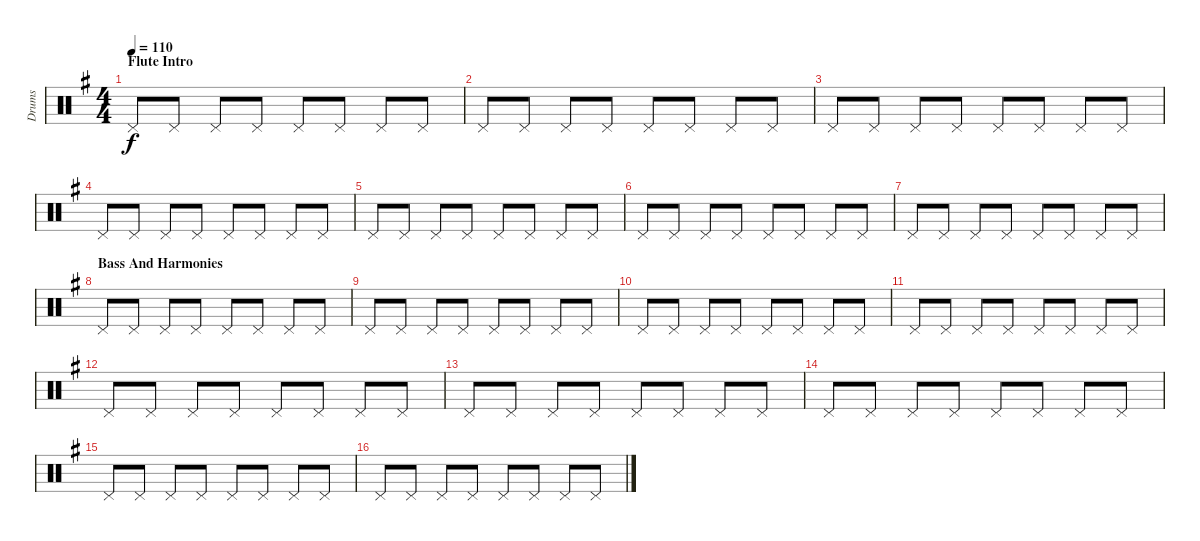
\track ("Drums" "Drums") {instrument percussion}
\staff {score}
\articulation defaults
\ts (4 4)
\section ("" "Flute Intro")
\tempo 110
\clef neutral
\ks g "Pedal Hi-Hat (hit)".8{dy f} "Pedal Hi-Hat (hit)".8 "Pedal Hi-Hat (hit)".8 "Pedal Hi-Hat (hit)".8 "Pedal Hi-Hat (hit)".8 "Pedal Hi-Hat (hit)".8 "Pedal Hi-Hat (hit)".8 "Pedal Hi-Hat (hit)".8
|
"Pedal Hi-Hat (hit)".8 "Pedal Hi-Hat (hit)".8 "Pedal Hi-Hat (hit)".8 "Pedal Hi-Hat (hit)".8 "Pedal Hi-Hat (hit)".8 "Pedal Hi-Hat (hit)".8 "Pedal Hi-Hat (hit)".8 "Pedal Hi-Hat (hit)".8 |
"Pedal Hi-Hat (hit)".8 "Pedal Hi-Hat (hit)".8 "Pedal Hi-Hat (hit)".8 "Pedal Hi-Hat (hit)".8 "Pedal Hi-Hat (hit)".8 "Pedal Hi-Hat (hit)".8 "Pedal Hi-Hat (hit)".8 "Pedal Hi-Hat (hit)".8 |
"Pedal Hi-Hat (hit)".8 "Pedal Hi-Hat (hit)".8 "Pedal Hi-Hat (hit)".8 "Pedal Hi-Hat (hit)".8 "Pedal Hi-Hat (hit)".8 "Pedal Hi-Hat (hit)".8 "Pedal Hi-Hat (hit)".8 "Pedal Hi-Hat (hit)".8 |
"Pedal Hi-Hat (hit)".8 "Pedal Hi-Hat (hit)".8 "Pedal Hi-Hat (hit)".8 "Pedal Hi-Hat (hit)".8 "Pedal Hi-Hat (hit)".8 "Pedal Hi-Hat (hit)".8 "Pedal Hi-Hat (hit)".8 "Pedal Hi-Hat (hit)".8 |
"Pedal Hi-Hat (hit)".8 "Pedal Hi-Hat (hit)".8 "Pedal Hi-Hat (hit)".8 "Pedal Hi-Hat (hit)".8 "Pedal Hi-Hat (hit)".8 "Pedal Hi-Hat (hit)".8 "Pedal Hi-Hat (hit)".8 "Pedal Hi-Hat (hit)".8 |
"Pedal Hi-Hat (hit)".8 "Pedal Hi-Hat (hit)".8 "Pedal Hi-Hat (hit)".8 "Pedal Hi-Hat (hit)".8 "Pedal Hi-Hat (hit)".8 "Pedal Hi-Hat (hit)".8 "Pedal Hi-Hat (hit)".8 "Pedal Hi-Hat (hit)".8 |
\section ("" "Bass And Harmonies")
"Pedal Hi-Hat (hit)".8 "Pedal Hi-Hat (hit)".8 "Pedal Hi-Hat (hit)".8 "Pedal Hi-Hat (hit)".8 "Pedal Hi-Hat (hit)".8 "Pedal Hi-Hat (hit)".8 "Pedal Hi-Hat (hit)".8 "Pedal Hi-Hat (hit)".8 |
"Pedal Hi-Hat (hit)".8 "Pedal Hi-Hat (hit)".8 "Pedal Hi-Hat (hit)".8 "Pedal Hi-Hat (hit)".8 "Pedal Hi-Hat (hit)".8 "Pedal Hi-Hat (hit)".8 "Pedal Hi-Hat (hit)".8 "Pedal Hi-Hat (hit)".8 |
"Pedal Hi-Hat (hit)".8 "Pedal Hi-Hat (hit)".8 "Pedal Hi-Hat (hit)".8 "Pedal Hi-Hat (hit)".8 "Pedal Hi-Hat (hit)".8 "Pedal Hi-Hat (hit)".8 "Pedal Hi-Hat (hit)".8 "Pedal Hi-Hat (hit)".8 |
"Pedal Hi-Hat (hit)".8 "Pedal Hi-Hat (hit)".8 "Pedal Hi-Hat (hit)".8 "Pedal Hi-Hat (hit)".8 "Pedal Hi-Hat (hit)".8 "Pedal Hi-Hat (hit)".8 "Pedal Hi-Hat (hit)".8 "Pedal Hi-Hat (hit)".8 |
"Pedal Hi-Hat (hit)".8 "Pedal Hi-Hat (hit)".8 "Pedal Hi-Hat (hit)".8 "Pedal Hi-Hat (hit)".8 "Pedal Hi-Hat (hit)".8 "Pedal Hi-Hat (hit)".8 "Pedal Hi-Hat (hit)".8 "Pedal Hi-Hat (hit)".8 |
"Pedal Hi-Hat (hit)".8 "Pedal Hi-Hat (hit)".8 "Pedal Hi-Hat (hit)".8 "Pedal Hi-Hat (hit)".8 "Pedal Hi-Hat (hit)".8 "Pedal Hi-Hat (hit)".8 "Pedal Hi-Hat (hit)".8 "Pedal Hi-Hat (hit)".8 |
"Pedal Hi-Hat (hit)".8 "Pedal Hi-Hat (hit)".8 "Pedal Hi-Hat (hit)".8 "Pedal Hi-Hat (hit)".8 "Pedal Hi-Hat (hit)".8 "Pedal Hi-Hat (hit)".8 "Pedal Hi-Hat (hit)".8 "Pedal Hi-Hat (hit)".8 |
"Pedal Hi-Hat (hit)".8 "Pedal Hi-Hat (hit)".8 "Pedal Hi-Hat (hit)".8 "Pedal Hi-Hat (hit)".8 "Pedal Hi-Hat (hit)".8 "Pedal Hi-Hat (hit)".8 "Pedal Hi-Hat (hit)".8 "Pedal Hi-Hat (hit)".8 |
"Pedal Hi-Hat (hit)".8 "Pedal Hi-Hat (hit)".8 "Pedal Hi-Hat (hit)".8 "Pedal Hi-Hat (hit)".8 "Pedal Hi-Hat (hit)".8 "Pedal Hi-Hat (hit)".8 "Pedal Hi-Hat (hit)".8 "Pedal Hi-Hat (hit)".8
